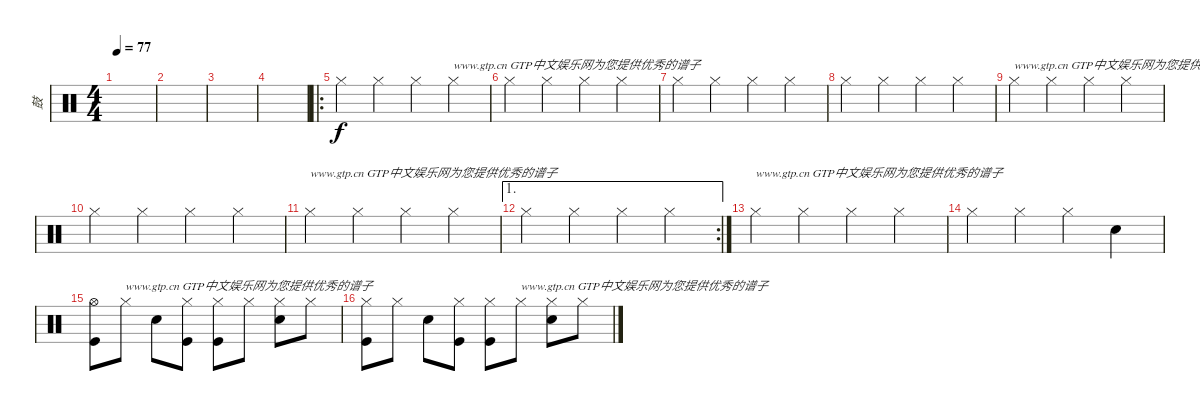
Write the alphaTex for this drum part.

\track ("鼓" "鼓") {instrument percussion}
\staff {score}
\articulation defaults
\ts (4 4)
\tempo 77
\clef neutral
\ks c
|
|
|
|
\ro "Hi-Hat (closed)".4 "Hi-Hat (closed)".4 "Hi-Hat (closed)".4 "Hi-Hat (closed)".4{txt "www.gtp.cn GTP中文娱乐网为您提供优秀的谱子"}
|
"Hi-Hat (closed)".4 "Hi-Hat (closed)".4 "Hi-Hat (closed)".4 "Hi-Hat (closed)".4 |
"Hi-Hat (closed)".4 "Hi-Hat (closed)".4 "Hi-Hat (closed)".4 "Hi-Hat (closed)".4 |
"Hi-Hat (closed)".4 "Hi-Hat (closed)".4 "Hi-Hat (closed)".4 "Hi-Hat (closed)".4 |
"Hi-Hat (closed)".4{txt "www.gtp.cn GTP中文娱乐网为您提供优秀的谱子"} "Hi-Hat (closed)".4 "Hi-Hat (closed)".4 "Hi-Hat (closed)".4 |
"Hi-Hat (closed)".4 "Hi-Hat (closed)".4 "Hi-Hat (closed)".4 "Hi-Hat (closed)".4 |
"Hi-Hat (closed)".4{txt "www.gtp.cn GTP中文娱乐网为您提供优秀的谱子"} "Hi-Hat (closed)".4 "Hi-Hat (closed)".4 "Hi-Hat (closed)".4 |
\ae 1
\rc 2 "Hi-Hat (closed)".4 "Hi-Hat (closed)".4 "Hi-Hat (closed)".4 "Hi-Hat (closed)".4
|
"Hi-Hat (closed)".4{txt "www.gtp.cn GTP中文娱乐网为您提供优秀的谱子"} "Hi-Hat (closed)".4 "Hi-Hat (closed)".4 "Hi-Hat (closed)".4 |
"Hi-Hat (closed)".4 "Hi-Hat (closed)".4 "Hi-Hat (closed)".4 "Snare (hit) 2".4 |
("Kick (hit)" "Hi-Hat (open)").8 "Hi-Hat (closed)".8{txt "www.gtp.cn GTP中文娱乐网为您提供优秀的谱子"} "Snare (hit) 2".8 ("Hi-Hat (closed)" "Kick (hit)").8 ("Hi-Hat (closed)" "Kick (hit)").8 "Hi-Hat (closed)".8 ("Hi-Hat (closed)" "Snare (hit) 2").8 "Hi-Hat (closed)".8 |
("Kick (hit)" "Hi-Hat (closed)").8 "Hi-Hat (closed)".8 "Snare (hit) 2".8 ("Hi-Hat (closed)" "Kick (hit)").8 ("Hi-Hat (closed)" "Kick (hit)").8 "Hi-Hat (closed)".8{txt "www.gtp.cn GTP中文娱乐网为您提供优秀的谱子"} ("Hi-Hat (closed)" "Snare (hit) 2").8 "Hi-Hat (closed)".8
